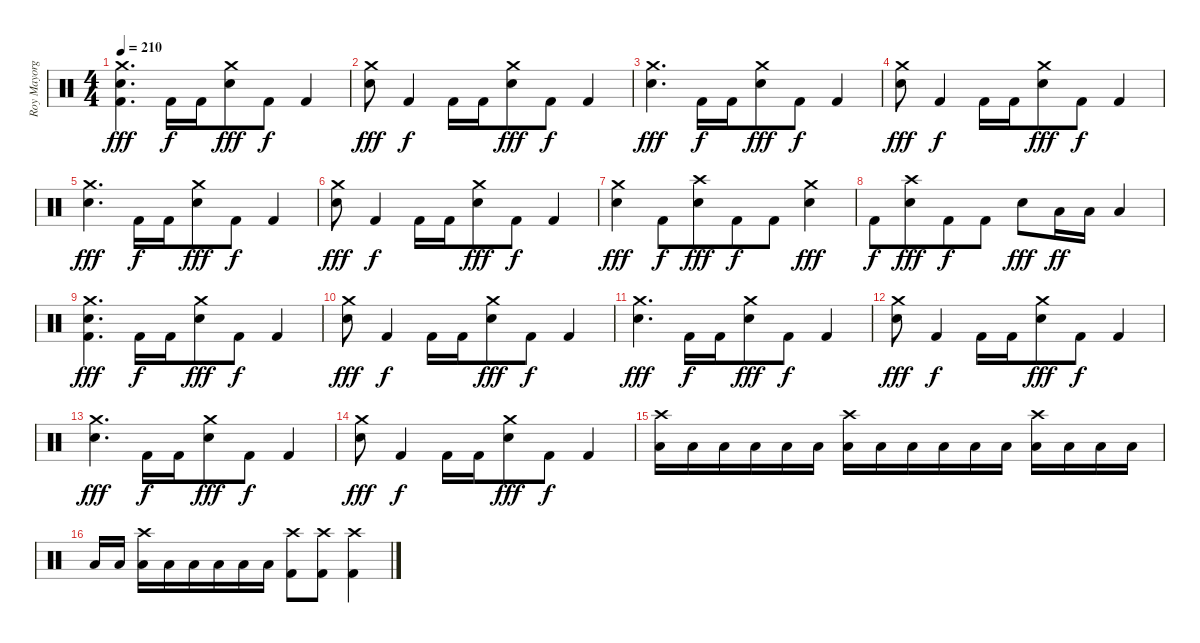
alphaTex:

\track ("Roy Mayorga" "Roy Mayorg") {instrument percussion}
\staff {score}
\articulation defaults
\ts (4 4)
\tempo 210
\clef neutral
\ks c
("Crash medium (hit)" "Electric Snare (hit)" "Kick (hit) 2").4{d dy fff} "Kick (hit) 2".16{dy f} "Kick (hit) 2".16{beam merge} ("Crash medium (hit)" "Electric Snare (hit)").8{dy fff} "Kick (hit) 2".8{dy f} "Kick (hit) 2".4 |
("Crash medium (hit)" "Electric Snare (hit)").8{dy fff} "Kick (hit) 2".4{dy f} "Kick (hit) 2".16 "Kick (hit) 2".16{beam merge} ("Crash medium (hit)" "Electric Snare (hit)").8{dy fff} "Kick (hit) 2".8{dy f} "Kick (hit) 2".4 |
("Crash medium (hit)" "Electric Snare (hit)").4{d dy fff} "Kick (hit) 2".16{dy f} "Kick (hit) 2".16{beam merge} ("Crash medium (hit)" "Electric Snare (hit)").8{dy fff} "Kick (hit) 2".8{dy f} "Kick (hit) 2".4 |
("Crash medium (hit)" "Electric Snare (hit)").8{dy fff} "Kick (hit) 2".4{dy f} "Kick (hit) 2".16 "Kick (hit) 2".16{beam merge} ("Crash medium (hit)" "Electric Snare (hit)").8{dy fff} "Kick (hit) 2".8{dy f} "Kick (hit) 2".4 |
("Crash medium (hit)" "Electric Snare (hit)").4{d dy fff} "Kick (hit) 2".16{dy f} "Kick (hit) 2".16{beam merge} ("Crash medium (hit)" "Electric Snare (hit)").8{dy fff} "Kick (hit) 2".8{dy f} "Kick (hit) 2".4 |
("Crash medium (hit)" "Electric Snare (hit)").8{dy fff} "Kick (hit) 2".4{dy f} "Kick (hit) 2".16 "Kick (hit) 2".16{beam merge} ("Crash medium (hit)" "Electric Snare (hit)").8{dy fff} "Kick (hit) 2".8{dy f} "Kick (hit) 2".4 |
("Crash medium (hit)" "Electric Snare (hit)").4{dy fff} "Kick (hit) 2".8{dy f} ("Crash high (hit)" "Electric Snare (hit)").8{dy fff beam merge} "Kick (hit) 2".8{dy f} "Kick (hit) 2".8 ("Crash medium (hit)" "Electric Snare (hit)").4{dy fff} |
"Kick (hit) 2".8{dy f} ("Crash high (hit)" "Electric Snare (hit)").8{dy fff beam merge} "Kick (hit) 2".8{dy f} "Kick (hit) 2".8 "Electric Snare (hit)".8{dy fff} "Low Tom (hit)".16{dy ff} "Low Tom (hit)".16 "Low Tom (hit)".4 |
("Crash medium (hit)" "Electric Snare (hit)" "Kick (hit) 2").4{d dy fff} "Kick (hit) 2".16{dy f} "Kick (hit) 2".16{beam merge} ("Crash medium (hit)" "Electric Snare (hit)").8{dy fff} "Kick (hit) 2".8{dy f} "Kick (hit) 2".4 |
("Crash medium (hit)" "Electric Snare (hit)").8{dy fff} "Kick (hit) 2".4{dy f} "Kick (hit) 2".16 "Kick (hit) 2".16{beam merge} ("Crash medium (hit)" "Electric Snare (hit)").8{dy fff} "Kick (hit) 2".8{dy f} "Kick (hit) 2".4 |
("Crash medium (hit)" "Electric Snare (hit)").4{d dy fff} "Kick (hit) 2".16{dy f} "Kick (hit) 2".16{beam merge} ("Crash medium (hit)" "Electric Snare (hit)").8{dy fff} "Kick (hit) 2".8{dy f} "Kick (hit) 2".4 |
("Crash medium (hit)" "Electric Snare (hit)").8{dy fff} "Kick (hit) 2".4{dy f} "Kick (hit) 2".16 "Kick (hit) 2".16{beam merge} ("Crash medium (hit)" "Electric Snare (hit)").8{dy fff} "Kick (hit) 2".8{dy f} "Kick (hit) 2".4 |
("Crash medium (hit)" "Electric Snare (hit)").4{d dy fff} "Kick (hit) 2".16{dy f} "Kick (hit) 2".16{beam merge} ("Crash medium (hit)" "Electric Snare (hit)").8{dy fff} "Kick (hit) 2".8{dy f} "Kick (hit) 2".4 |
("Crash medium (hit)" "Electric Snare (hit)").8{dy fff} "Kick (hit) 2".4{dy f} "Kick (hit) 2".16 "Kick (hit) 2".16{beam merge} ("Crash medium (hit)" "Electric Snare (hit)").8{dy fff} "Kick (hit) 2".8{dy f} "Kick (hit) 2".4 |
("Crash high (hit)" "Low Tom (hit)").16 "Low Tom (hit)".16 "Low Tom (hit)".16 "Low Tom (hit)".16{beam merge} "Low Tom (hit)".16 "Low Tom (hit)".16{beam split} ("Crash high (hit)" "Low Tom (hit)").16 "Low Tom (hit)".16{beam merge} "Low Tom (hit)".16 "Low Tom (hit)".16 "Low Tom (hit)".16 "Low Tom (hit)".16{beam split} ("Crash high (hit)" "Low Tom (hit)").16 "Low Tom (hit)".16 "Low Tom (hit)".16 "Low Tom (hit)".16 |
"Low Tom (hit)".16 "Low Tom (hit)".16{beam split} ("Crash high (hit)" "Low Tom (hit)").16 "Low Tom (hit)".16{beam merge} "Low Tom (hit)".16 "Low Tom (hit)".16 "Low Tom (hit)".16 "Low Tom (hit)".16 ("Crash high (hit)" "Kick (hit) 2").8 ("Crash high (hit)" "Kick (hit) 2").8 ("Crash high (hit)" "Kick (hit) 2").4
